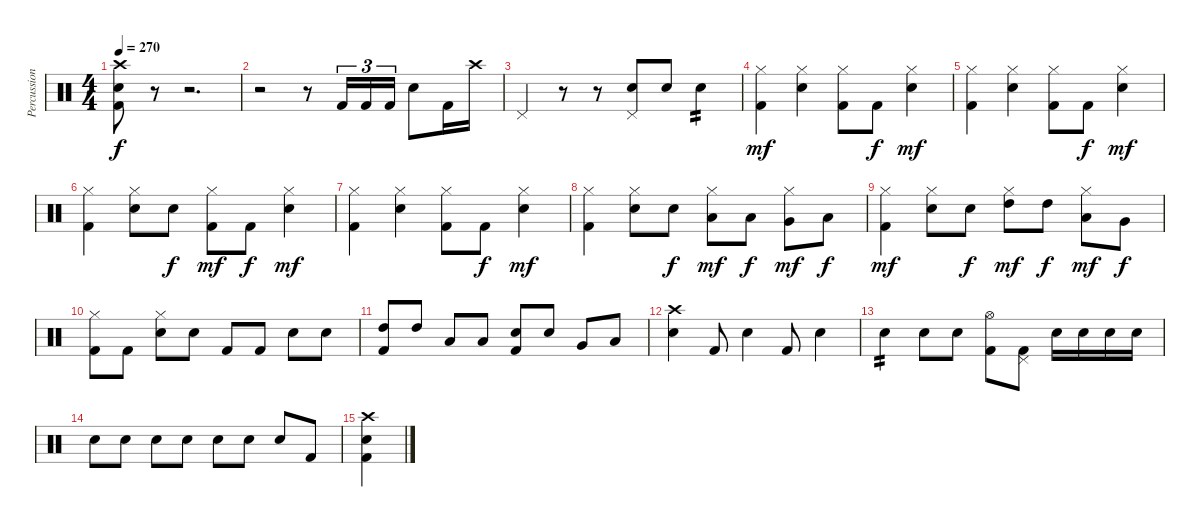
\track ("Percussion" "Percussion") {instrument percussion}
\staff {score}
\articulation defaults
\ts (4 4)
\tempo 270
\clef neutral
\ks c
("Crash high (hit)" "Electric Snare (hit)" "Kick (hit) 2").8{dy f} r.8 r.2{d} |
r.2 r.8 "Kick (hit) 2".16{tu (3 2)} "Kick (hit) 2".16{tu (3 2)} "Kick (hit) 2".16{tu (3 2)} "Electric Snare (hit)".8 "Kick (hit) 2".16 "Crash high (hit)".16 |
"Pedal Hi-Hat (hit)".4 r.8 r.8 ("Pedal Hi-Hat (hit)" "Electric Snare (hit)").8 "Electric Snare (hit)".8 "Electric Snare (hit)".4{tp 2} |
("Hi-Hat (closed)" "Kick (hit) 2").4{dy mf} ("Hi-Hat (closed)" "Electric Snare (hit)").4 ("Hi-Hat (closed)" "Kick (hit) 2").8 "Kick (hit) 2".8{dy f} ("Hi-Hat (closed)" "Electric Snare (hit)").4{dy mf} |
("Hi-Hat (closed)" "Kick (hit) 2").4 ("Hi-Hat (closed)" "Electric Snare (hit)").4 ("Hi-Hat (closed)" "Kick (hit) 2").8 "Kick (hit) 2".8{dy f} ("Hi-Hat (closed)" "Electric Snare (hit)").4{dy mf} |
("Hi-Hat (closed)" "Kick (hit) 2").4 ("Hi-Hat (closed)" "Electric Snare (hit)").8 "Electric Snare (hit)".8{dy f} ("Hi-Hat (closed)" "Kick (hit) 2").8{dy mf} "Kick (hit) 2".8{dy f} ("Hi-Hat (closed)" "Electric Snare (hit)").4{dy mf} |
("Hi-Hat (closed)" "Kick (hit) 2").4 ("Hi-Hat (closed)" "Electric Snare (hit)").4 ("Hi-Hat (closed)" "Kick (hit) 2").8 "Kick (hit) 2".8{dy f} ("Hi-Hat (closed)" "Electric Snare (hit)").4{dy mf} |
("Hi-Hat (closed)" "Kick (hit) 2").4 ("Hi-Hat (closed)" "Electric Snare (hit)").8 "Electric Snare (hit)".8{dy f} ("Hi-Hat (closed)" "Low Tom (hit)").8{dy mf} "Low Tom (hit)".8{dy f} ("Hi-Hat (closed)" "Very Low Tom (hit)").8{dy mf} "Low Floor Tom (hit)".8{dy f} |
("Hi-Hat (closed)" "Kick (hit) 2").4{dy mf} ("Hi-Hat (closed)" "Electric Snare (hit)").8 "Electric Snare (hit)".8{dy f} ("Hi-Hat (closed)" "High Tom (hit)").8{dy mf} "High Tom (hit)".8{dy f} ("Hi-Hat (closed)" "Low Tom (hit)").8{dy mf} "Very Low Tom (hit)".8{dy f} |
("Hi-Hat (closed)" "Kick (hit) 2").8 "Kick (hit) 2".8 ("Hi-Hat (closed)" "Electric Snare (hit)").8 "Electric Snare (hit)".8 "Kick (hit) 2".8 "Kick (hit) 2".8 "Electric Snare (hit)".8 "Electric Snare (hit)".8 |
("High Tom (hit)" "Kick (hit) 2").8 "High Tom (hit)".8 "Low Tom (hit)".8 "Low Tom (hit)".8 ("Electric Snare (hit)" "Kick (hit) 2").8 "Electric Snare (hit)".8 "Very Low Tom (hit)".8 "Low Floor Tom (hit)".8 |
("Crash high (hit)" "Electric Snare (hit)").4 "Kick (hit) 2".8 "Electric Snare (hit)".4 "Kick (hit) 2".8 "Electric Snare (hit)".4 |
"Electric Snare (hit)".4{tp 2} "Electric Snare (hit)".8 "Electric Snare (hit)".8 ("Hi-Hat (open)" "Kick (hit) 2").8 ("Pedal Hi-Hat (hit)" "Kick (hit) 2").8 "Electric Snare (hit)".16 "Electric Snare (hit)".16 "Electric Snare (hit)".16 "Electric Snare (hit)".16 |
"Electric Snare (hit)".8 "Electric Snare (hit)".8 "Electric Snare (hit)".8 "Electric Snare (hit)".8 "Electric Snare (hit)".8 "Electric Snare (hit)".8 "Electric Snare (hit)".8 "Kick (hit) 2".8 |
("Crash high (hit)" "Electric Snare (hit)" "Kick (hit) 2").4
